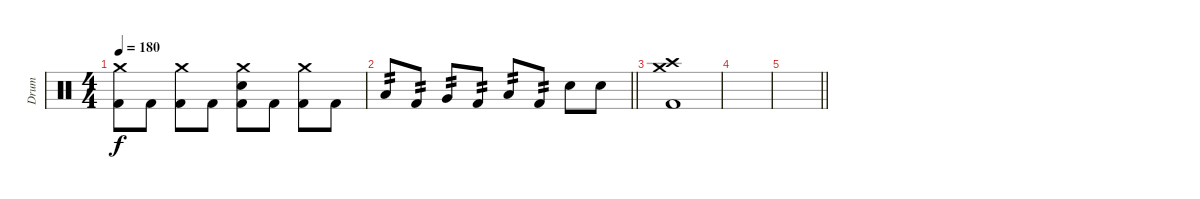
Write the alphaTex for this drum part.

\track ("Drum" "Drum") {instrument percussion}
\staff {score}
\articulation defaults
\ts (4 4)
\tempo 180
\clef neutral
\ks c
("Crash medium (hit)" "Kick (hit) 2").8{dy f} "Kick (hit) 2".8 ("Crash medium (hit)" "Kick (hit) 2").8 "Kick (hit) 2".8 ("Crash medium (hit)" "Snare (hit) 2" "Kick (hit) 2").8 "Kick (hit) 2".8 ("Crash medium (hit)" "Kick (hit) 2").8 "Kick (hit) 2".8 |
\barLineRight lightlight "Low Tom (hit)".8{tp 2} "Kick (hit) 2".8{tp 2} "Very Low Tom (hit)".8{tp 2} "Kick (hit) 2".8{tp 2} "Low Floor Tom (hit)".8{tp 2} "Kick (hit) 2".8{tp 2} "Snare (hit) 2".8 "Snare (hit) 2".8
|
("Crash high (hit)" "Crash medium (hit)" "Kick (hit) 2").1 |
|
\barLineRight lightlight
